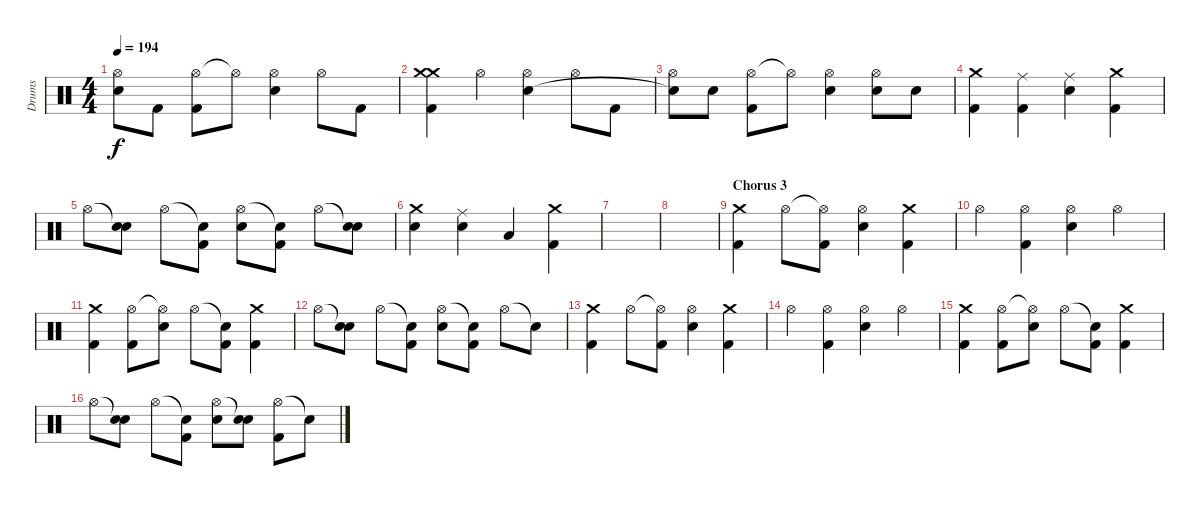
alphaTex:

\track ("Drums" "Drums") {instrument percussion}
\staff {score}
\articulation defaults
\ts (4 4)
\tempo 194
\clef neutral
\ks c
("Hi-Hat (open)" "Snare (hit)"{t}).8{dy f} "Kick (hit) 2".8 ("Hi-Hat (open)" "Kick (hit) 2").8 "Hi-Hat (open)"{t}.8 ("Hi-Hat (open)" "Snare (hit) 2").4 "Hi-Hat (open)".8 "Kick (hit) 2".8 |
("Crash medium (hit)" "Crash medium (hit)" "Kick (hit) 2").4 "Hi-Hat (open)".4 ("Hi-Hat (open)" "Snare (hit) 2").4 "Hi-Hat (open)".8 "Kick (hit) 2".8 |
("Hi-Hat (open)" "Snare (hit)"{t}).8 "Snare (hit) 2".8 ("Hi-Hat (open)" "Kick (hit) 2").8 "Hi-Hat (open)"{t}.8 ("Hi-Hat (open)" "Snare (hit) 2").4 ("Hi-Hat (open)" "Snare (hit) 2").8 "Snare (hit) 2".8 |
("Crash medium (hit)" "Kick (hit) 2").4 ("Ride (middle)" "Kick (hit) 2").4 ("Ride (middle)" "Snare (hit) 2").4 ("Crash medium (hit)" "Kick (hit) 2").4 |
"Hi-Hat (open)".8 ("Snare (hit)"{t} "Snare (hit) 2").8 "Hi-Hat (open)".8 ("Snare (hit)"{t} "Kick (hit) 2").8 ("Hi-Hat (open)" "Snare (hit) 2").8 ("Snare (hit)"{t} "Kick (hit) 2").8 "Hi-Hat (open)".8 ("Snare (hit)"{t} "Snare (hit) 2").8 |
("Crash medium (hit)" "Snare (hit) 2").4 ("Ride (middle)" "Snare (hit) 2").4 "Low Tom (hit)".4 ("Crash medium (hit)" "Kick (hit) 2").4 |
|
|
\section ("" "Chorus 3")
("Crash medium (hit)" "Kick (hit) 2").4 "Hi-Hat (open)".8 ("Hi-Hat (open)"{t} "Kick (hit) 2").8 ("Hi-Hat (open)" "Snare (hit) 2").4 ("Crash medium (hit)" "Kick (hit) 2").4 |
"Hi-Hat (open)".4 ("Hi-Hat (open)" "Kick (hit) 2").4 ("Hi-Hat (open)" "Snare (hit) 2").4 "Hi-Hat (open)".4 |
("Crash medium (hit)" "Kick (hit) 2").4 ("Hi-Hat (open)" "Kick (hit) 2").8 ("Hi-Hat (open)"{t} "Snare (hit) 2").8 "Hi-Hat (open)".8 ("Snare (hit)"{t} "Kick (hit) 2").8 ("Crash medium (hit)" "Kick (hit) 2").4 |
"Hi-Hat (open)".8 ("Snare (hit)"{t} "Snare (hit) 2").8 "Hi-Hat (open)".8 ("Snare (hit)"{t} "Kick (hit) 2").8 ("Hi-Hat (open)" "Snare (hit) 2").8 ("Snare (hit)"{t} "Kick (hit) 2").8 "Hi-Hat (open)".8 "Snare (hit)"{t}.8 |
("Crash medium (hit)" "Kick (hit) 2").4 "Hi-Hat (open)".8 ("Hi-Hat (open)"{t} "Kick (hit) 2").8 ("Hi-Hat (open)" "Snare (hit) 2").4 ("Crash medium (hit)" "Kick (hit) 2").4 |
"Hi-Hat (open)".4 ("Hi-Hat (open)" "Kick (hit) 2").4 ("Hi-Hat (open)" "Snare (hit) 2").4 "Hi-Hat (open)".4 |
("Crash medium (hit)" "Kick (hit) 2").4 ("Hi-Hat (open)" "Kick (hit) 2").8 ("Hi-Hat (open)"{t} "Snare (hit) 2").8 "Hi-Hat (open)".8 ("Snare (hit)"{t} "Kick (hit) 2").8 ("Crash medium (hit)" "Kick (hit) 2").4 |
"Hi-Hat (open)".8 ("Snare (hit)"{t} "Snare (hit) 2").8 "Hi-Hat (open)".8 ("Snare (hit)"{t} "Kick (hit) 2").8 ("Hi-Hat (open)" "Snare (hit) 2").8 ("Snare (hit)"{t} "Snare (hit) 2").8 ("Hi-Hat (open)" "Kick (hit) 2").8 "Snare (hit)"{t}.8
